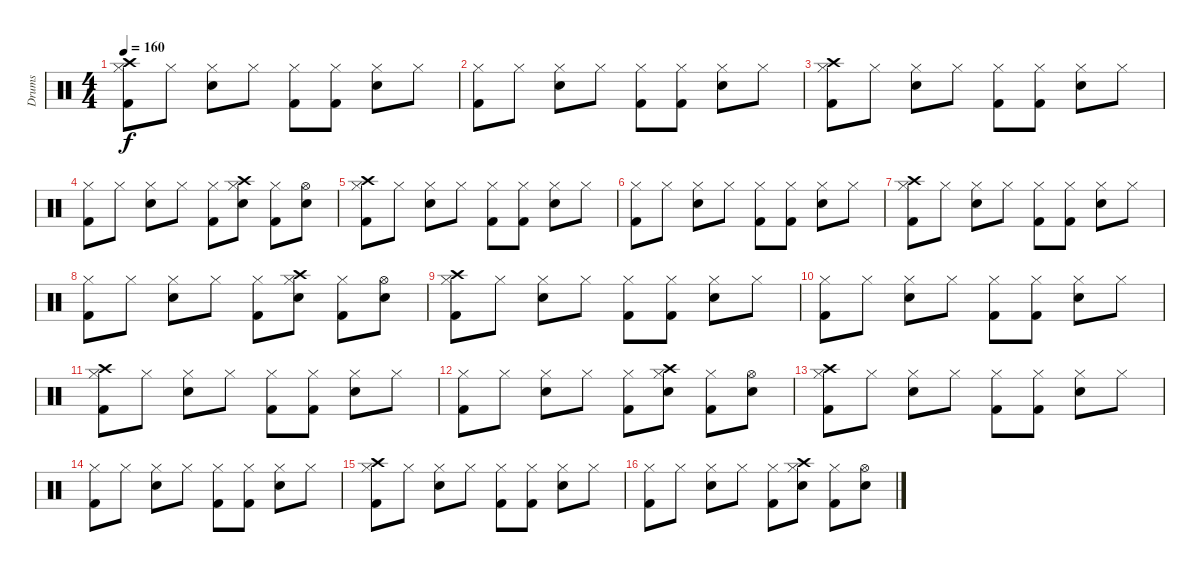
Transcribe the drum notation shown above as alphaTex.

\track ("Drums" "Drums") {instrument percussion}
\staff {score}
\articulation defaults
\ts (4 4)
\tempo 160
\clef neutral
\ks c
("Crash high (hit)" "Hi-Hat (closed)" "Kick (hit) 2").8{dy f} "Hi-Hat (closed)".8 ("Hi-Hat (closed)" "Snare (hit) 2").8 "Hi-Hat (closed)".8 ("Hi-Hat (closed)" "Kick (hit) 2").8 ("Hi-Hat (closed)" "Kick (hit) 2").8 ("Hi-Hat (closed)" "Snare (hit) 2").8 "Hi-Hat (closed)".8 |
("Hi-Hat (closed)" "Kick (hit) 2").8 "Hi-Hat (closed)".8 ("Hi-Hat (closed)" "Snare (hit) 2").8 "Hi-Hat (closed)".8 ("Hi-Hat (closed)" "Kick (hit) 2").8 ("Hi-Hat (closed)" "Kick (hit) 2").8 ("Hi-Hat (closed)" "Snare (hit) 2").8 "Hi-Hat (closed)".8 |
("Crash high (hit)" "Hi-Hat (closed)" "Kick (hit) 2").8 "Hi-Hat (closed)".8 ("Hi-Hat (closed)" "Snare (hit) 2").8 "Hi-Hat (closed)".8 ("Hi-Hat (closed)" "Kick (hit) 2").8 ("Hi-Hat (closed)" "Kick (hit) 2").8 ("Hi-Hat (closed)" "Snare (hit) 2").8 "Hi-Hat (closed)".8 |
("Hi-Hat (closed)" "Kick (hit) 2").8 "Hi-Hat (closed)".8 ("Hi-Hat (closed)" "Snare (hit) 2").8 "Hi-Hat (closed)".8 ("Hi-Hat (closed)" "Kick (hit) 2").8 ("Crash high (hit)" "Hi-Hat (closed)" "Snare (hit) 2").8 ("Hi-Hat (closed)" "Kick (hit) 2").8 ("Hi-Hat (open)" "Snare (hit) 2").8 |
("Crash high (hit)" "Hi-Hat (closed)" "Kick (hit) 2").8 "Hi-Hat (closed)".8 ("Hi-Hat (closed)" "Snare (hit) 2").8 "Hi-Hat (closed)".8 ("Hi-Hat (closed)" "Kick (hit) 2").8 ("Hi-Hat (closed)" "Kick (hit) 2").8 ("Hi-Hat (closed)" "Snare (hit) 2").8 "Hi-Hat (closed)".8 |
("Hi-Hat (closed)" "Kick (hit) 2").8 "Hi-Hat (closed)".8 ("Hi-Hat (closed)" "Snare (hit) 2").8 "Hi-Hat (closed)".8 ("Hi-Hat (closed)" "Kick (hit) 2").8 ("Hi-Hat (closed)" "Kick (hit) 2").8 ("Hi-Hat (closed)" "Snare (hit) 2").8 "Hi-Hat (closed)".8 |
("Crash high (hit)" "Hi-Hat (closed)" "Kick (hit) 2").8 "Hi-Hat (closed)".8 ("Hi-Hat (closed)" "Snare (hit) 2").8 "Hi-Hat (closed)".8 ("Hi-Hat (closed)" "Kick (hit) 2").8 ("Hi-Hat (closed)" "Kick (hit) 2").8 ("Hi-Hat (closed)" "Snare (hit) 2").8 "Hi-Hat (closed)".8 |
("Hi-Hat (closed)" "Kick (hit) 2").8 "Hi-Hat (closed)".8 ("Hi-Hat (closed)" "Snare (hit) 2").8 "Hi-Hat (closed)".8 ("Hi-Hat (closed)" "Kick (hit) 2").8 ("Crash high (hit)" "Hi-Hat (closed)" "Snare (hit) 2").8 ("Hi-Hat (closed)" "Kick (hit) 2").8 ("Hi-Hat (open)" "Snare (hit) 2").8 |
("Crash high (hit)" "Hi-Hat (closed)" "Kick (hit) 2").8 "Hi-Hat (closed)".8 ("Hi-Hat (closed)" "Snare (hit) 2").8 "Hi-Hat (closed)".8 ("Hi-Hat (closed)" "Kick (hit) 2").8 ("Hi-Hat (closed)" "Kick (hit) 2").8 ("Hi-Hat (closed)" "Snare (hit) 2").8 "Hi-Hat (closed)".8 |
("Hi-Hat (closed)" "Kick (hit) 2").8 "Hi-Hat (closed)".8 ("Hi-Hat (closed)" "Snare (hit) 2").8 "Hi-Hat (closed)".8 ("Hi-Hat (closed)" "Kick (hit) 2").8 ("Hi-Hat (closed)" "Kick (hit) 2").8 ("Hi-Hat (closed)" "Snare (hit) 2").8 "Hi-Hat (closed)".8 |
("Crash high (hit)" "Hi-Hat (closed)" "Kick (hit) 2").8 "Hi-Hat (closed)".8 ("Hi-Hat (closed)" "Snare (hit) 2").8 "Hi-Hat (closed)".8 ("Hi-Hat (closed)" "Kick (hit) 2").8 ("Hi-Hat (closed)" "Kick (hit) 2").8 ("Hi-Hat (closed)" "Snare (hit) 2").8 "Hi-Hat (closed)".8 |
("Hi-Hat (closed)" "Kick (hit) 2").8 "Hi-Hat (closed)".8 ("Hi-Hat (closed)" "Snare (hit) 2").8 "Hi-Hat (closed)".8 ("Hi-Hat (closed)" "Kick (hit) 2").8 ("Crash high (hit)" "Hi-Hat (closed)" "Snare (hit) 2").8 ("Hi-Hat (closed)" "Kick (hit) 2").8 ("Hi-Hat (open)" "Snare (hit) 2").8 |
("Crash high (hit)" "Hi-Hat (closed)" "Kick (hit) 2").8 "Hi-Hat (closed)".8 ("Hi-Hat (closed)" "Snare (hit) 2").8 "Hi-Hat (closed)".8 ("Hi-Hat (closed)" "Kick (hit) 2").8 ("Hi-Hat (closed)" "Kick (hit) 2").8 ("Hi-Hat (closed)" "Snare (hit) 2").8 "Hi-Hat (closed)".8 |
("Hi-Hat (closed)" "Kick (hit) 2").8 "Hi-Hat (closed)".8 ("Hi-Hat (closed)" "Snare (hit) 2").8 "Hi-Hat (closed)".8 ("Hi-Hat (closed)" "Kick (hit) 2").8 ("Hi-Hat (closed)" "Kick (hit) 2").8 ("Hi-Hat (closed)" "Snare (hit) 2").8 "Hi-Hat (closed)".8 |
("Crash high (hit)" "Hi-Hat (closed)" "Kick (hit) 2").8 "Hi-Hat (closed)".8 ("Hi-Hat (closed)" "Snare (hit) 2").8 "Hi-Hat (closed)".8 ("Hi-Hat (closed)" "Kick (hit) 2").8 ("Hi-Hat (closed)" "Kick (hit) 2").8 ("Hi-Hat (closed)" "Snare (hit) 2").8 "Hi-Hat (closed)".8 |
("Hi-Hat (closed)" "Kick (hit) 2").8 "Hi-Hat (closed)".8 ("Hi-Hat (closed)" "Snare (hit) 2").8 "Hi-Hat (closed)".8 ("Hi-Hat (closed)" "Kick (hit) 2").8 ("Crash high (hit)" "Hi-Hat (closed)" "Snare (hit) 2").8 ("Hi-Hat (closed)" "Kick (hit) 2").8 ("Hi-Hat (open)" "Snare (hit) 2").8
